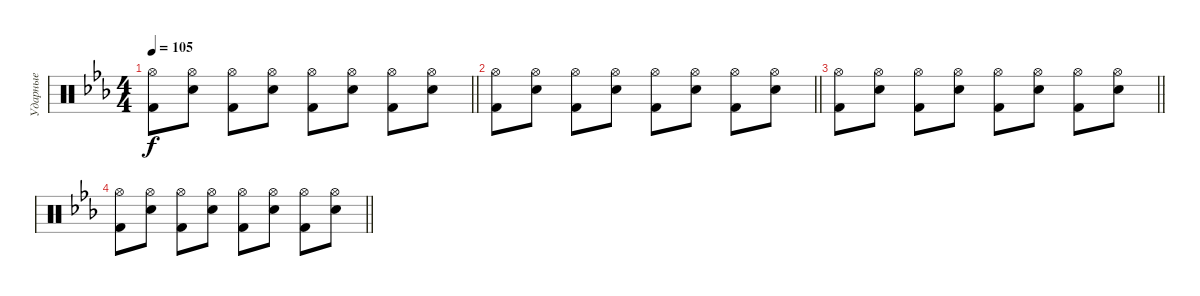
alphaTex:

\track ("Ударные" "Ударные") {instrument percussion}
\staff {score}
\articulation defaults
\ts (4 4)
\tempo 105
\clef neutral
\barLineRight lightlight
\ks cminor
("Kick (hit) 2" "Hi-Hat (open)").8{dy f} ("Electric Snare (hit)" "Hi-Hat (open)").8 ("Kick (hit) 2" "Hi-Hat (open)").8 ("Electric Snare (hit)" "Hi-Hat (open)").8 ("Kick (hit) 2" "Hi-Hat (open)").8 ("Electric Snare (hit)" "Hi-Hat (open)").8 ("Kick (hit) 2" "Hi-Hat (open)").8 ("Electric Snare (hit)" "Hi-Hat (open)").8 |
\barLineRight lightlight
("Kick (hit) 2" "Hi-Hat (open)").8 ("Electric Snare (hit)" "Hi-Hat (open)").8 ("Kick (hit) 2" "Hi-Hat (open)").8 ("Electric Snare (hit)" "Hi-Hat (open)").8 ("Kick (hit) 2" "Hi-Hat (open)").8 ("Electric Snare (hit)" "Hi-Hat (open)").8 ("Kick (hit) 2" "Hi-Hat (open)").8 ("Electric Snare (hit)" "Hi-Hat (open)").8 |
\section ("" "")
\barLineRight lightlight
("Kick (hit) 2" "Hi-Hat (open)").8 ("Electric Snare (hit)" "Hi-Hat (open)").8 ("Kick (hit) 2" "Hi-Hat (open)").8 ("Electric Snare (hit)" "Hi-Hat (open)").8 ("Kick (hit) 2" "Hi-Hat (open)").8 ("Electric Snare (hit)" "Hi-Hat (open)").8 ("Kick (hit) 2" "Hi-Hat (open)").8 ("Electric Snare (hit)" "Hi-Hat (open)").8 |
\barLineRight lightlight
("Kick (hit) 2" "Hi-Hat (open)").8 ("Electric Snare (hit)" "Hi-Hat (open)").8 ("Kick (hit) 2" "Hi-Hat (open)").8 ("Electric Snare (hit)" "Hi-Hat (open)").8 ("Kick (hit) 2" "Hi-Hat (open)").8 ("Electric Snare (hit)" "Hi-Hat (open)").8 ("Kick (hit) 2" "Hi-Hat (open)").8 ("Electric Snare (hit)" "Hi-Hat (open)").8
